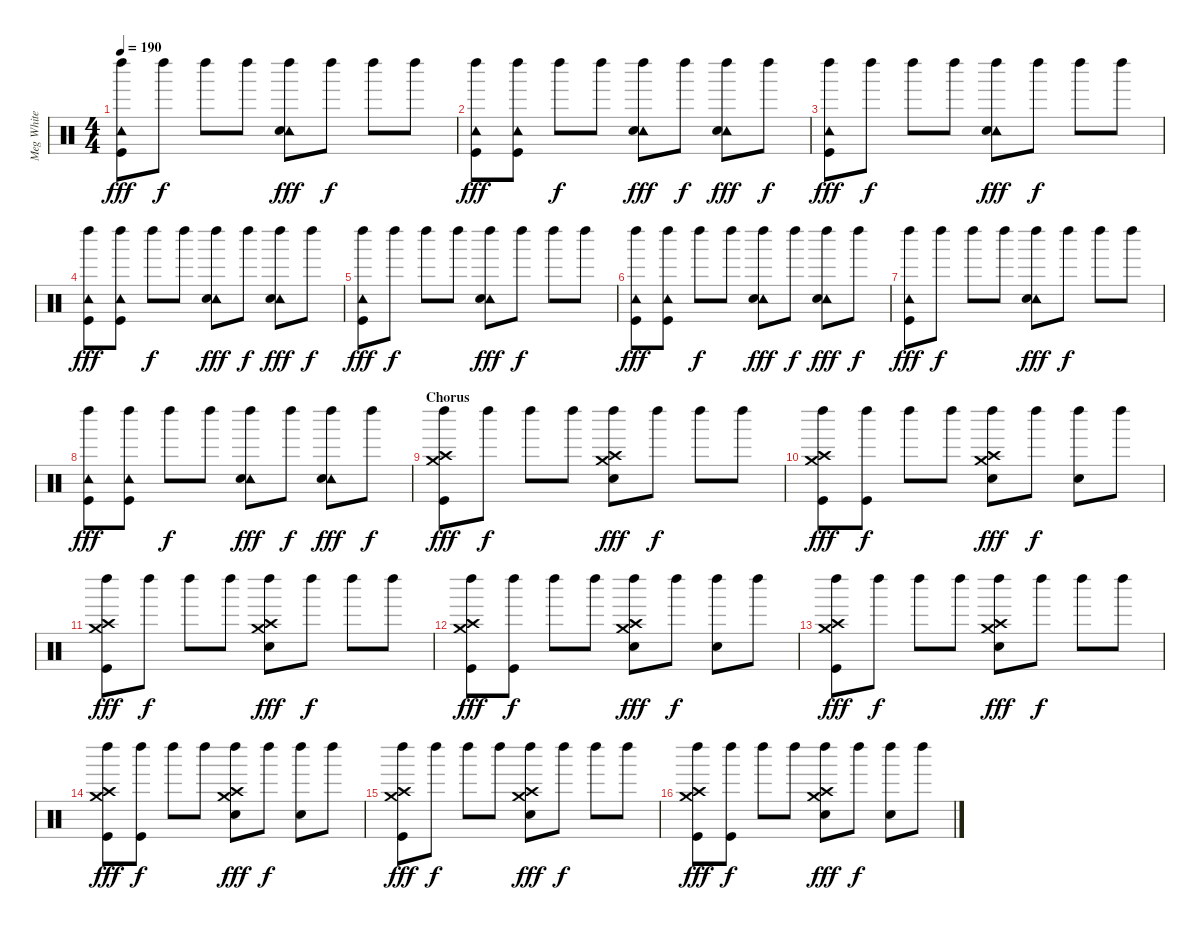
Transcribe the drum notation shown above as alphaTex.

\track ("Meg White" "Meg White") {instrument percussion}
\staff {score}
\articulation defaults
\ts (4 4)
\tempo 190
\clef neutral
\ks c
("Tambourine (hit)" "Kick (hit)" "Left Maraca (hit)").8{dy fff} "Left Maraca (hit)".8{dy f} "Left Maraca (hit)".8 "Left Maraca (hit)".8 ("Tambourine (hit)" "Snare (hit) 2" "Left Maraca (hit)").8{dy fff} "Left Maraca (hit)".8{dy f} "Left Maraca (hit)".8 "Left Maraca (hit)".8 |
("Tambourine (hit)" "Kick (hit)" "Left Maraca (hit)").8{dy fff} ("Tambourine (hit)" "Kick (hit)" "Left Maraca (hit)").8 "Left Maraca (hit)".8{dy f} "Left Maraca (hit)".8 ("Tambourine (hit)" "Snare (hit) 2" "Left Maraca (hit)").8{dy fff} "Left Maraca (hit)".8{dy f} ("Tambourine (hit)" "Snare (hit) 2" "Left Maraca (hit)").8{dy fff} "Left Maraca (hit)".8{dy f} |
("Tambourine (hit)" "Kick (hit)" "Left Maraca (hit)").8{dy fff} "Left Maraca (hit)".8{dy f} "Left Maraca (hit)".8 "Left Maraca (hit)".8 ("Tambourine (hit)" "Snare (hit) 2" "Left Maraca (hit)").8{dy fff} "Left Maraca (hit)".8{dy f} "Left Maraca (hit)".8 "Left Maraca (hit)".8 |
("Tambourine (hit)" "Kick (hit)" "Left Maraca (hit)").8{dy fff} ("Tambourine (hit)" "Kick (hit)" "Left Maraca (hit)").8 "Left Maraca (hit)".8{dy f} "Left Maraca (hit)".8 ("Tambourine (hit)" "Snare (hit) 2" "Left Maraca (hit)").8{dy fff} "Left Maraca (hit)".8{dy f} ("Tambourine (hit)" "Snare (hit) 2" "Left Maraca (hit)").8{dy fff} "Left Maraca (hit)".8{dy f} |
("Tambourine (hit)" "Kick (hit)" "Left Maraca (hit)").8{dy fff} "Left Maraca (hit)".8{dy f} "Left Maraca (hit)".8 "Left Maraca (hit)".8 ("Tambourine (hit)" "Snare (hit) 2" "Left Maraca (hit)").8{dy fff} "Left Maraca (hit)".8{dy f} "Left Maraca (hit)".8 "Left Maraca (hit)".8 |
("Tambourine (hit)" "Kick (hit)" "Left Maraca (hit)").8{dy fff} ("Tambourine (hit)" "Kick (hit)" "Left Maraca (hit)").8 "Left Maraca (hit)".8{dy f} "Left Maraca (hit)".8 ("Tambourine (hit)" "Snare (hit) 2" "Left Maraca (hit)").8{dy fff} "Left Maraca (hit)".8{dy f} ("Tambourine (hit)" "Snare (hit) 2" "Left Maraca (hit)").8{dy fff} "Left Maraca (hit)".8{dy f} |
("Tambourine (hit)" "Kick (hit)" "Left Maraca (hit)").8{dy fff} "Left Maraca (hit)".8{dy f} "Left Maraca (hit)".8 "Left Maraca (hit)".8 ("Tambourine (hit)" "Snare (hit) 2" "Left Maraca (hit)").8{dy fff} "Left Maraca (hit)".8{dy f} "Left Maraca (hit)".8 "Left Maraca (hit)".8 |
("Tambourine (hit)" "Kick (hit)" "Left Maraca (hit)").8{dy fff} ("Tambourine (hit)" "Kick (hit)" "Left Maraca (hit)").8 "Left Maraca (hit)".8{dy f} "Left Maraca (hit)".8 ("Tambourine (hit)" "Snare (hit) 2" "Left Maraca (hit)").8{dy fff} "Left Maraca (hit)".8{dy f} ("Tambourine (hit)" "Snare (hit) 2" "Left Maraca (hit)").8{dy fff} "Left Maraca (hit)".8{dy f} |
\section ("" "Chorus")
("Crash high (hit)" "Crash medium (hit)" "Kick (hit)" "Left Maraca (hit)").8{dy fff} "Left Maraca (hit)".8{dy f} "Left Maraca (hit)".8 "Left Maraca (hit)".8 ("Crash high (hit)" "Crash medium (hit)" "Snare (hit) 2" "Left Maraca (hit)").8{dy fff} "Left Maraca (hit)".8{dy f} "Left Maraca (hit)".8 "Left Maraca (hit)".8 |
("Crash high (hit)" "Crash medium (hit)" "Kick (hit)" "Left Maraca (hit)").8{dy fff} ("Kick (hit)" "Left Maraca (hit)").8{dy f} "Left Maraca (hit)".8 "Left Maraca (hit)".8 ("Crash high (hit)" "Crash medium (hit)" "Snare (hit) 2" "Left Maraca (hit)").8{dy fff} "Left Maraca (hit)".8{dy f} ("Snare (hit) 2" "Left Maraca (hit)").8 "Left Maraca (hit)".8 |
("Crash high (hit)" "Crash medium (hit)" "Kick (hit)" "Left Maraca (hit)").8{dy fff} "Left Maraca (hit)".8{dy f} "Left Maraca (hit)".8 "Left Maraca (hit)".8 ("Crash high (hit)" "Crash medium (hit)" "Snare (hit) 2" "Left Maraca (hit)").8{dy fff} "Left Maraca (hit)".8{dy f} "Left Maraca (hit)".8 "Left Maraca (hit)".8 |
("Crash high (hit)" "Crash medium (hit)" "Kick (hit)" "Left Maraca (hit)").8{dy fff} ("Kick (hit)" "Left Maraca (hit)").8{dy f} "Left Maraca (hit)".8 "Left Maraca (hit)".8 ("Crash high (hit)" "Crash medium (hit)" "Snare (hit) 2" "Left Maraca (hit)").8{dy fff} "Left Maraca (hit)".8{dy f} ("Snare (hit) 2" "Left Maraca (hit)").8 "Left Maraca (hit)".8 |
("Crash high (hit)" "Crash medium (hit)" "Kick (hit)" "Left Maraca (hit)").8{dy fff} "Left Maraca (hit)".8{dy f} "Left Maraca (hit)".8 "Left Maraca (hit)".8 ("Crash high (hit)" "Crash medium (hit)" "Snare (hit) 2" "Left Maraca (hit)").8{dy fff} "Left Maraca (hit)".8{dy f} "Left Maraca (hit)".8 "Left Maraca (hit)".8 |
("Crash high (hit)" "Crash medium (hit)" "Kick (hit)" "Left Maraca (hit)").8{dy fff} ("Kick (hit)" "Left Maraca (hit)").8{dy f} "Left Maraca (hit)".8 "Left Maraca (hit)".8 ("Crash high (hit)" "Crash medium (hit)" "Snare (hit) 2" "Left Maraca (hit)").8{dy fff} "Left Maraca (hit)".8{dy f} ("Snare (hit) 2" "Left Maraca (hit)").8 "Left Maraca (hit)".8 |
("Crash high (hit)" "Crash medium (hit)" "Kick (hit)" "Left Maraca (hit)").8{dy fff} "Left Maraca (hit)".8{dy f} "Left Maraca (hit)".8 "Left Maraca (hit)".8 ("Crash high (hit)" "Crash medium (hit)" "Snare (hit) 2" "Left Maraca (hit)").8{dy fff} "Left Maraca (hit)".8{dy f} "Left Maraca (hit)".8 "Left Maraca (hit)".8 |
("Crash high (hit)" "Crash medium (hit)" "Kick (hit)" "Left Maraca (hit)").8{dy fff} ("Kick (hit)" "Left Maraca (hit)").8{dy f} "Left Maraca (hit)".8 "Left Maraca (hit)".8 ("Crash high (hit)" "Crash medium (hit)" "Snare (hit) 2" "Left Maraca (hit)").8{dy fff} "Left Maraca (hit)".8{dy f} ("Snare (hit) 2" "Left Maraca (hit)").8 "Left Maraca (hit)".8
